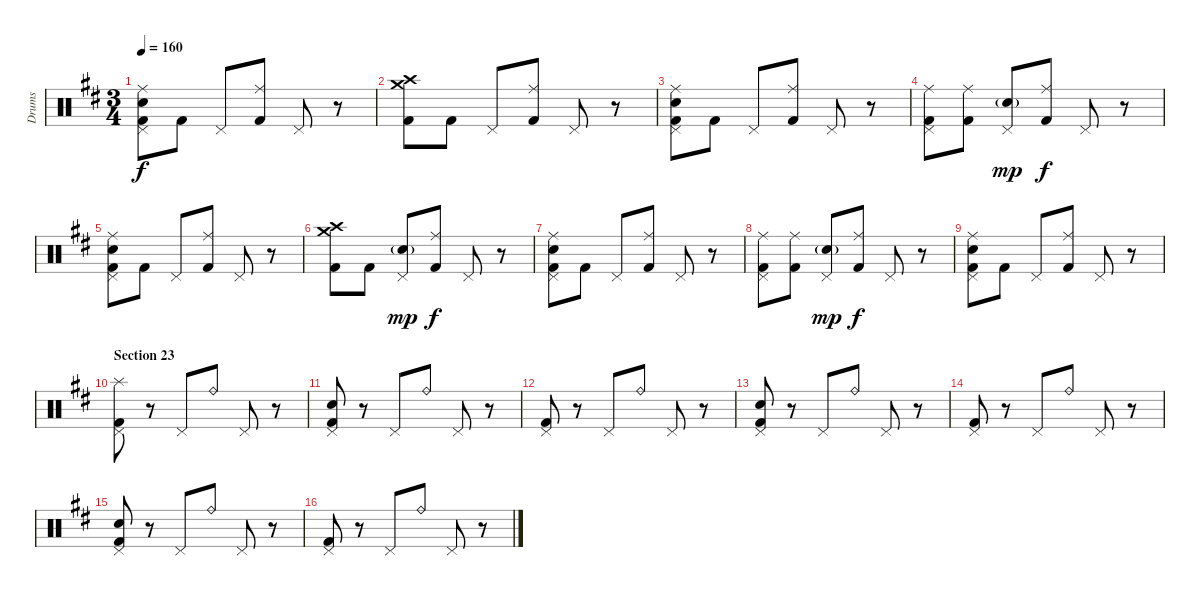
\track ("Drums" "Drums") {instrument percussion}
\staff {score}
\articulation defaults
\ts (3 4)
\tempo 160
\clef neutral
\ks bminor
("Ride (middle)" "Pedal Hi-Hat (hit)" "Snare (hit) 2" "Kick (hit) 2").8{dy f} "Kick (hit) 2".8 "Pedal Hi-Hat (hit)".8 ("Ride (middle)" "Kick (hit) 2").8 "Pedal Hi-Hat (hit)".8 r.8 |
("Crash high (hit)" "Crash medium (hit)" "Kick (hit) 2").8 "Kick (hit) 2".8 "Pedal Hi-Hat (hit)".8 ("Ride (middle)" "Kick (hit) 2").8 "Pedal Hi-Hat (hit)".8 r.8 |
("Ride (middle)" "Pedal Hi-Hat (hit)" "Snare (hit) 2" "Kick (hit) 2").8 "Kick (hit) 2".8 "Pedal Hi-Hat (hit)".8 ("Ride (middle)" "Kick (hit) 2").8 "Pedal Hi-Hat (hit)".8 r.8 |
("Ride (middle)" "Pedal Hi-Hat (hit)" "Kick (hit) 2").8 ("Ride (middle)" "Kick (hit) 2").8 ("Pedal Hi-Hat (hit)" "Snare (hit) 2"{g}).8{dy mp} ("Ride (middle)" "Kick (hit) 2").8{dy f} "Pedal Hi-Hat (hit)".8 r.8 |
("Ride (middle)" "Pedal Hi-Hat (hit)" "Snare (hit) 2" "Kick (hit) 2").8 "Kick (hit) 2".8 "Pedal Hi-Hat (hit)".8 ("Ride (middle)" "Kick (hit) 2").8 "Pedal Hi-Hat (hit)".8 r.8 |
("Crash high (hit)" "Crash medium (hit)" "Kick (hit) 2").8 "Kick (hit) 2".8 ("Pedal Hi-Hat (hit)" "Snare (hit) 2"{g}).8{dy mp} ("Ride (middle)" "Kick (hit) 2").8{dy f} "Pedal Hi-Hat (hit)".8 r.8 |
("Ride (middle)" "Pedal Hi-Hat (hit)" "Snare (hit) 2" "Kick (hit) 2").8 "Kick (hit) 2".8 "Pedal Hi-Hat (hit)".8 ("Ride (middle)" "Kick (hit) 2").8 "Pedal Hi-Hat (hit)".8 r.8 |
("Ride (middle)" "Pedal Hi-Hat (hit)" "Kick (hit) 2").8 ("Ride (middle)" "Kick (hit) 2").8 ("Pedal Hi-Hat (hit)" "Snare (hit) 2"{g}).8{dy mp} ("Ride (middle)" "Kick (hit) 2").8{dy f} "Pedal Hi-Hat (hit)".8 r.8 |
("Ride (middle)" "Pedal Hi-Hat (hit)" "Snare (hit) 2" "Kick (hit) 2").8 "Kick (hit) 2".8 "Pedal Hi-Hat (hit)".8 ("Ride (middle)" "Kick (hit) 2").8 "Pedal Hi-Hat (hit)".8 r.8 |
\section ("" "Section 23")
("Splash (hit)" "Pedal Hi-Hat (hit)" "Kick (hit) 2").8 r.8 "Pedal Hi-Hat (hit)".8 "Ride (bell)".8 "Pedal Hi-Hat (hit)".8 r.8 |
("Pedal Hi-Hat (hit)" "Snare (hit) 2" "Kick (hit) 2").8 r.8 "Pedal Hi-Hat (hit)".8 "Ride (bell)".8 "Pedal Hi-Hat (hit)".8 r.8 |
("Pedal Hi-Hat (hit)" "Kick (hit) 2").8 r.8 "Pedal Hi-Hat (hit)".8 "Ride (bell)".8 "Pedal Hi-Hat (hit)".8 r.8 |
("Pedal Hi-Hat (hit)" "Snare (hit) 2" "Kick (hit) 2").8 r.8 "Pedal Hi-Hat (hit)".8 "Ride (bell)".8 "Pedal Hi-Hat (hit)".8 r.8 |
("Pedal Hi-Hat (hit)" "Kick (hit) 2").8 r.8 "Pedal Hi-Hat (hit)".8 "Ride (bell)".8 "Pedal Hi-Hat (hit)".8 r.8 |
("Pedal Hi-Hat (hit)" "Snare (hit) 2" "Kick (hit) 2").8 r.8 "Pedal Hi-Hat (hit)".8 "Ride (bell)".8 "Pedal Hi-Hat (hit)".8 r.8 |
("Pedal Hi-Hat (hit)" "Kick (hit) 2").8 r.8 "Pedal Hi-Hat (hit)".8 "Ride (bell)".8 "Pedal Hi-Hat (hit)".8 r.8
